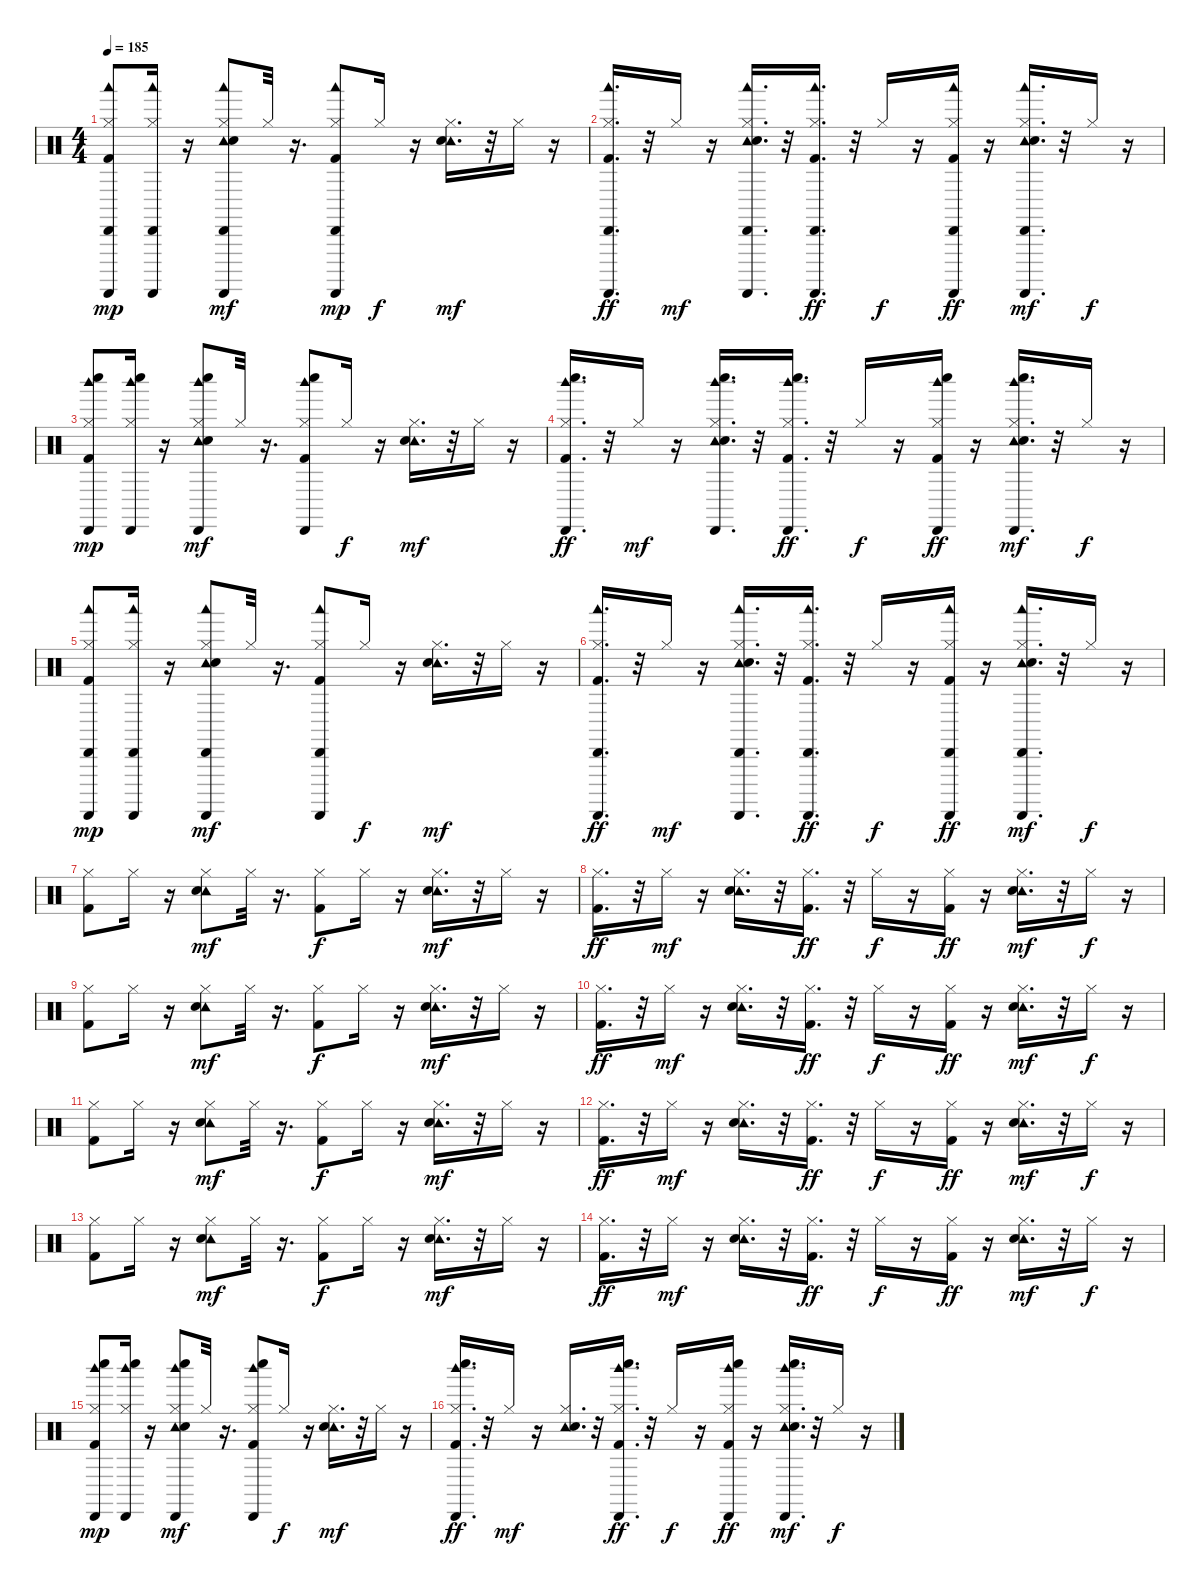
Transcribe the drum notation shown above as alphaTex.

\track "" {instrument percussion}
\staff {score}
\articulation defaults
\ts (4 4)
\tempo 185
\clef neutral
\ks c
("Cabasa (hit)" "Woodblock low (hit)" "Guiro (scrap-return)" "Hi-Hat (closed)" "Kick (hit) 2").8{dy mp} ("Cabasa (hit)" "Guiro (scrap-return)" "Woodblock low (hit)" "Hi-Hat (closed)").16 r.16 ("Cabasa (hit)" "Woodblock low (hit)" "Guiro (scrap-return)" "Tambourine (hit)" "Hi-Hat (closed)" "Snare (hit) 2").8{dy mf} "Hi-Hat (closed)".32 r.16{d} ("Woodblock low (hit)" "Cabasa (hit)" "Guiro (scrap-return)" "Hi-Hat (closed)" "Kick (hit) 2").8{dy mp} "Hi-Hat (closed)".16{dy f} r.16 ("Tambourine (hit)" "Hi-Hat (closed)" "Snare (hit) 2").16{d dy mf} r.32 "Hi-Hat (closed)".16 r.16 |
("Cabasa (hit)" "Guiro (scrap-return)" "Woodblock low (hit)" "Hi-Hat (closed)" "Kick (hit) 2").16{d dy ff} r.32 "Hi-Hat (closed)".16{dy mf} r.16 ("Guiro (scrap-return)" "Cabasa (hit)" "Woodblock low (hit)" "Tambourine (hit)" "Hi-Hat (closed)" "Snare (hit) 2").16{d} r.32 ("Cabasa (hit)" "Woodblock low (hit)" "Guiro (scrap-return)" "Hi-Hat (closed)" "Kick (hit) 2").16{d dy ff} r.32 "Hi-Hat (closed)".16{dy f} r.16 ("Cabasa (hit)" "Woodblock low (hit)" "Guiro (scrap-return)" "Hi-Hat (closed)" "Kick (hit) 2").16{dy ff} r.16 ("Woodblock low (hit)" "Cabasa (hit)" "Guiro (scrap-return)" "Tambourine (hit)" "Hi-Hat (closed)" "Snare (hit) 2").16{d dy mf} r.32 "Hi-Hat (closed)".16{dy f} r.16 |
("Whistle low (hit)" "Woodblock high (hit)" "Cabasa (hit)" "Hi-Hat (closed)" "Kick (hit) 2").8{dy mp} ("Cabasa (hit)" "Woodblock high (hit)" "Whistle low (hit)" "Hi-Hat (closed)").16 r.16 ("Whistle low (hit)" "Cabasa (hit)" "Woodblock high (hit)" "Tambourine (hit)" "Hi-Hat (closed)" "Snare (hit) 2").8{dy mf} "Hi-Hat (closed)".32 r.16{d} ("Cabasa (hit)" "Woodblock high (hit)" "Whistle low (hit)" "Hi-Hat (closed)" "Kick (hit) 2").8 "Hi-Hat (closed)".16{dy f} r.16 ("Tambourine (hit)" "Hi-Hat (closed)" "Snare (hit) 2").16{d dy mf} r.32 "Hi-Hat (closed)".16 r.16 |
("Cabasa (hit)" "Whistle low (hit)" "Woodblock high (hit)" "Hi-Hat (closed)" "Kick (hit) 2").16{d dy ff} r.32 "Hi-Hat (closed)".16{dy mf} r.16 ("Whistle low (hit)" "Cabasa (hit)" "Woodblock high (hit)" "Tambourine (hit)" "Hi-Hat (closed)" "Snare (hit) 2").16{d} r.32 ("Whistle low (hit)" "Cabasa (hit)" "Woodblock high (hit)" "Hi-Hat (closed)" "Kick (hit) 2").16{d dy ff} r.32 "Hi-Hat (closed)".16{dy f} r.16 ("Cabasa (hit)" "Whistle low (hit)" "Woodblock high (hit)" "Hi-Hat (closed)" "Kick (hit) 2").16{dy ff} r.16 ("Cabasa (hit)" "Whistle low (hit)" "Woodblock high (hit)" "Tambourine (hit)" "Hi-Hat (closed)" "Snare (hit) 2").16{d dy mf} r.32 "Hi-Hat (closed)".16{dy f} r.16 |
("Cabasa (hit)" "Woodblock low (hit)" "Guiro (scrap-return)" "Hi-Hat (closed)" "Kick (hit) 2").8{dy mp} ("Woodblock low (hit)" "Cabasa (hit)" "Guiro (scrap-return)" "Hi-Hat (closed)").16 r.16 ("Woodblock low (hit)" "Guiro (scrap-return)" "Cabasa (hit)" "Tambourine (hit)" "Hi-Hat (closed)" "Snare (hit) 2").8{dy mf} "Hi-Hat (closed)".32 r.16{d} ("Woodblock low (hit)" "Guiro (scrap-return)" "Cabasa (hit)" "Hi-Hat (closed)" "Kick (hit) 2").8 "Hi-Hat (closed)".16{dy f} r.16 ("Tambourine (hit)" "Hi-Hat (closed)" "Snare (hit) 2").16{d dy mf} r.32 "Hi-Hat (closed)".16 r.16 |
("Cabasa (hit)" "Woodblock low (hit)" "Guiro (scrap-return)" "Hi-Hat (closed)" "Kick (hit) 2").16{d dy ff} r.32 "Hi-Hat (closed)".16{dy mf} r.16 ("Cabasa (hit)" "Woodblock low (hit)" "Guiro (scrap-return)" "Tambourine (hit)" "Hi-Hat (closed)" "Snare (hit) 2").16{d} r.32 ("Cabasa (hit)" "Woodblock low (hit)" "Guiro (scrap-return)" "Hi-Hat (closed)" "Kick (hit) 2").16{d dy ff} r.32 "Hi-Hat (closed)".16{dy f} r.16 ("Cabasa (hit)" "Woodblock low (hit)" "Guiro (scrap-return)" "Hi-Hat (closed)" "Kick (hit) 2").16{dy ff} r.16 ("Woodblock low (hit)" "Cabasa (hit)" "Guiro (scrap-return)" "Tambourine (hit)" "Hi-Hat (closed)" "Snare (hit) 2").16{d dy mf} r.32 "Hi-Hat (closed)".16{dy f} r.16 |
("Hi-Hat (closed)" "Kick (hit) 2").8 "Hi-Hat (closed)".16 r.16 ("Tambourine (hit)" "Hi-Hat (closed)" "Snare (hit) 2").8{dy mf} "Hi-Hat (closed)".32 r.16{d} ("Hi-Hat (closed)" "Kick (hit) 2").8{dy f} "Hi-Hat (closed)".16 r.16 ("Tambourine (hit)" "Hi-Hat (closed)" "Snare (hit) 2").16{d dy mf} r.32 "Hi-Hat (closed)".16 r.16 |
("Hi-Hat (closed)" "Kick (hit) 2").16{d dy ff} r.32 "Hi-Hat (closed)".16{dy mf} r.16 ("Tambourine (hit)" "Hi-Hat (closed)" "Snare (hit) 2").16{d} r.32 ("Hi-Hat (closed)" "Kick (hit) 2").16{d dy ff} r.32 "Hi-Hat (closed)".16{dy f} r.16 ("Hi-Hat (closed)" "Kick (hit) 2").16{dy ff} r.16 ("Tambourine (hit)" "Hi-Hat (closed)" "Snare (hit) 2").16{d dy mf} r.32 "Hi-Hat (closed)".16{dy f} r.16 |
("Hi-Hat (closed)" "Kick (hit) 2").8 "Hi-Hat (closed)".16 r.16 ("Tambourine (hit)" "Hi-Hat (closed)" "Snare (hit) 2").8{dy mf} "Hi-Hat (closed)".32 r.16{d} ("Hi-Hat (closed)" "Kick (hit) 2").8{dy f} "Hi-Hat (closed)".16 r.16 ("Tambourine (hit)" "Hi-Hat (closed)" "Snare (hit) 2").16{d dy mf} r.32 "Hi-Hat (closed)".16 r.16 |
("Hi-Hat (closed)" "Kick (hit) 2").16{d dy ff} r.32 "Hi-Hat (closed)".16{dy mf} r.16 ("Tambourine (hit)" "Hi-Hat (closed)" "Snare (hit) 2").16{d} r.32 ("Hi-Hat (closed)" "Kick (hit) 2").16{d dy ff} r.32 "Hi-Hat (closed)".16{dy f} r.16 ("Hi-Hat (closed)" "Kick (hit) 2").16{dy ff} r.16 ("Tambourine (hit)" "Hi-Hat (closed)" "Snare (hit) 2").16{d dy mf} r.32 "Hi-Hat (closed)".16{dy f} r.16 |
("Hi-Hat (closed)" "Kick (hit) 2").8 "Hi-Hat (closed)".16 r.16 ("Tambourine (hit)" "Hi-Hat (closed)" "Snare (hit) 2").8{dy mf} "Hi-Hat (closed)".32 r.16{d} ("Hi-Hat (closed)" "Kick (hit) 2").8{dy f} "Hi-Hat (closed)".16 r.16 ("Tambourine (hit)" "Hi-Hat (closed)" "Snare (hit) 2").16{d dy mf} r.32 "Hi-Hat (closed)".16 r.16 |
("Hi-Hat (closed)" "Kick (hit) 2").16{d dy ff} r.32 "Hi-Hat (closed)".16{dy mf} r.16 ("Tambourine (hit)" "Hi-Hat (closed)" "Snare (hit) 2").16{d} r.32 ("Hi-Hat (closed)" "Kick (hit) 2").16{d dy ff} r.32 "Hi-Hat (closed)".16{dy f} r.16 ("Hi-Hat (closed)" "Kick (hit) 2").16{dy ff} r.16 ("Tambourine (hit)" "Hi-Hat (closed)" "Snare (hit) 2").16{d dy mf} r.32 "Hi-Hat (closed)".16{dy f} r.16 |
("Hi-Hat (closed)" "Kick (hit) 2").8 "Hi-Hat (closed)".16 r.16 ("Tambourine (hit)" "Hi-Hat (closed)" "Snare (hit) 2").8{dy mf} "Hi-Hat (closed)".32 r.16{d} ("Hi-Hat (closed)" "Kick (hit) 2").8{dy f} "Hi-Hat (closed)".16 r.16 ("Tambourine (hit)" "Hi-Hat (closed)" "Snare (hit) 2").16{d dy mf} r.32 "Hi-Hat (closed)".16 r.16 |
("Hi-Hat (closed)" "Kick (hit) 2").16{d dy ff} r.32 "Hi-Hat (closed)".16{dy mf} r.16 ("Tambourine (hit)" "Hi-Hat (closed)" "Snare (hit) 2").16{d} r.32 ("Hi-Hat (closed)" "Kick (hit) 2").16{d dy ff} r.32 "Hi-Hat (closed)".16{dy f} r.16 ("Hi-Hat (closed)" "Kick (hit) 2").16{dy ff} r.16 ("Tambourine (hit)" "Hi-Hat (closed)" "Snare (hit) 2").16{d dy mf} r.32 "Hi-Hat (closed)".16{dy f} r.16 |
("Whistle low (hit)" "Cabasa (hit)" "Woodblock high (hit)" "Hi-Hat (closed)" "Kick (hit) 2").8{dy mp} ("Cabasa (hit)" "Whistle low (hit)" "Woodblock high (hit)" "Hi-Hat (closed)").16 r.16 ("Cabasa (hit)" "Whistle low (hit)" "Woodblock high (hit)" "Tambourine (hit)" "Hi-Hat (closed)" "Snare (hit) 2").8{dy mf} "Hi-Hat (closed)".32 r.16{d} ("Cabasa (hit)" "Whistle low (hit)" "Woodblock high (hit)" "Hi-Hat (closed)" "Kick (hit) 2").8 "Hi-Hat (closed)".16{dy f} r.16 ("Tambourine (hit)" "Hi-Hat (closed)" "Snare (hit) 2").16{d dy mf} r.32 "Hi-Hat (closed)".16 r.16 |
("Cabasa (hit)" "Whistle low (hit)" "Woodblock high (hit)" "Hi-Hat (closed)" "Kick (hit) 2").16{d dy ff} r.32 "Hi-Hat (closed)".16{dy mf} r.16 ("Tambourine (hit)" "Hi-Hat (closed)" "Snare (hit) 2").16{d} r.32 ("Whistle low (hit)" "Cabasa (hit)" "Woodblock high (hit)" "Hi-Hat (closed)" "Kick (hit) 2").16{d dy ff} r.32 "Hi-Hat (closed)".16{dy f} r.16 ("Cabasa (hit)" "Whistle low (hit)" "Woodblock high (hit)" "Hi-Hat (closed)" "Kick (hit) 2").16{dy ff} r.16 ("Cabasa (hit)" "Whistle low (hit)" "Woodblock high (hit)" "Tambourine (hit)" "Hi-Hat (closed)" "Snare (hit) 2").16{d dy mf} r.32 "Hi-Hat (closed)".16{dy f} r.16
